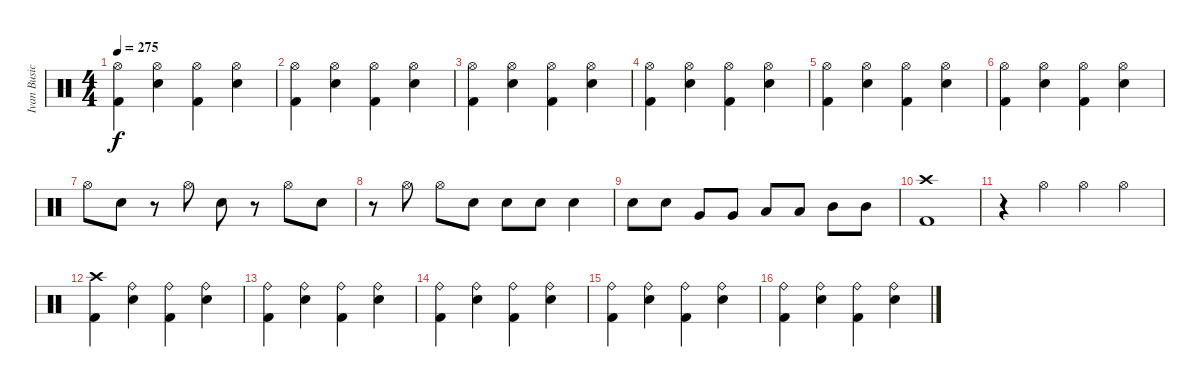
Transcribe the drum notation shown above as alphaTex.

\track ("Ivan Busic" "Ivan Busic") {instrument percussion}
\staff {score}
\articulation defaults
\ts (4 4)
\tempo 275
\clef neutral
\ks c
("Hi-Hat (open)" "Kick (hit) 2").4{dy f} ("Hi-Hat (open)" "Electric Snare (hit)").4 ("Hi-Hat (open)" "Kick (hit) 2").4 ("Hi-Hat (open)" "Electric Snare (hit)").4 |
("Hi-Hat (open)" "Kick (hit) 2").4 ("Hi-Hat (open)" "Electric Snare (hit)").4 ("Hi-Hat (open)" "Kick (hit) 2").4 ("Hi-Hat (open)" "Electric Snare (hit)").4 |
("Hi-Hat (open)" "Kick (hit) 2").4 ("Hi-Hat (open)" "Electric Snare (hit)").4 ("Hi-Hat (open)" "Kick (hit) 2").4 ("Hi-Hat (open)" "Electric Snare (hit)").4 |
("Hi-Hat (open)" "Kick (hit) 2").4 ("Hi-Hat (open)" "Electric Snare (hit)").4 ("Hi-Hat (open)" "Kick (hit) 2").4 ("Hi-Hat (open)" "Electric Snare (hit)").4 |
("Hi-Hat (open)" "Kick (hit) 2").4 ("Hi-Hat (open)" "Electric Snare (hit)").4 ("Hi-Hat (open)" "Kick (hit) 2").4 ("Hi-Hat (open)" "Electric Snare (hit)").4 |
("Hi-Hat (open)" "Kick (hit) 2").4 ("Hi-Hat (open)" "Electric Snare (hit)").4 ("Hi-Hat (open)" "Kick (hit) 2").4 ("Hi-Hat (open)" "Electric Snare (hit)").4 |
"Hi-Hat (open)".8 "Electric Snare (hit)".8 r.8 "Hi-Hat (open)".8 "Electric Snare (hit)".8 r.8 "Hi-Hat (open)".8 "Electric Snare (hit)".8 |
r.8 "Hi-Hat (open)".8 "Hi-Hat (open)".8 "Electric Snare (hit)".8 "Electric Snare (hit)".8 "Electric Snare (hit)".8 "Electric Snare (hit)".4 |
"Electric Snare (hit)".8 "Electric Snare (hit)".8 "Very Low Tom (hit)".8 "Very Low Tom (hit)".8 "Low Tom (hit)".8 "Low Tom (hit)".8 "Mid Tom (hit)".8 "Mid Tom (hit)".8 |
("Crash high (hit)" "Kick (hit) 2").1 |
r.4 "Hi-Hat (open)".4 "Hi-Hat (open)".4 "Hi-Hat (open)".4 |
("Crash high (hit)" "Kick (hit) 2").4 ("Ride (bell)" "Electric Snare (hit)").4 ("Ride (bell)" "Kick (hit) 2").4 ("Ride (bell)" "Electric Snare (hit)").4 |
("Ride (bell)" "Kick (hit) 2").4 ("Ride (bell)" "Electric Snare (hit)").4 ("Ride (bell)" "Kick (hit) 2").4 ("Ride (bell)" "Electric Snare (hit)").4 |
("Ride (bell)" "Kick (hit) 2").4 ("Ride (bell)" "Electric Snare (hit)").4 ("Ride (bell)" "Kick (hit) 2").4 ("Ride (bell)" "Electric Snare (hit)").4 |
("Ride (bell)" "Kick (hit) 2").4 ("Ride (bell)" "Electric Snare (hit)").4 ("Ride (bell)" "Kick (hit) 2").4 ("Ride (bell)" "Electric Snare (hit)").4 |
("Ride (bell)" "Kick (hit) 2").4 ("Ride (bell)" "Electric Snare (hit)").4 ("Ride (bell)" "Kick (hit) 2").4 ("Ride (bell)" "Electric Snare (hit)").4
